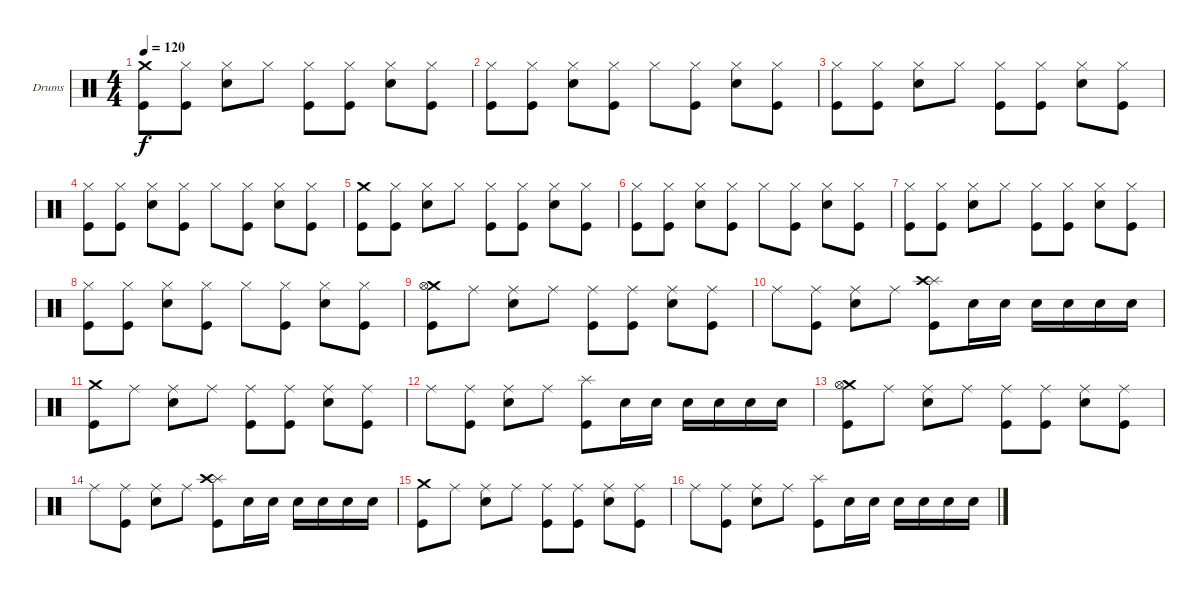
\defaultSystemsLayout 4
\bracketExtendMode groupsimilarinstruments
\firstSystemTrackNameOrientation horizontal
\otherSystemsTrackNameOrientation horizontal
\track ("Drumkit" "Drums") {instrument percussion}
\staff {score}
\articulation defaults
\ts (4 4)
\tempo 120
\clef neutral
\ks c
("Crash medium (hit)" "Kick (hit)").8{dy f} ("Hi-Hat (closed)" "Kick (hit)").8 ("Hi-Hat (closed)" "Snare (hit) 2").8 "Hi-Hat (closed)".8 ("Hi-Hat (closed)" "Kick (hit)").8 ("Hi-Hat (closed)" "Kick (hit)").8 ("Hi-Hat (closed)" "Snare (hit) 2").8 ("Hi-Hat (closed)" "Kick (hit)").8 |
("Hi-Hat (closed)" "Kick (hit)").8 ("Hi-Hat (closed)" "Kick (hit)").8 ("Hi-Hat (closed)" "Snare (hit) 2").8 ("Hi-Hat (closed)" "Kick (hit)").8 "Hi-Hat (closed)".8 ("Hi-Hat (closed)" "Kick (hit)").8 ("Hi-Hat (closed)" "Snare (hit) 2").8 ("Hi-Hat (closed)" "Kick (hit)").8 |
("Hi-Hat (closed)" "Kick (hit)").8 ("Hi-Hat (closed)" "Kick (hit)").8 ("Hi-Hat (closed)" "Snare (hit) 2").8 "Hi-Hat (closed)".8 ("Hi-Hat (closed)" "Kick (hit)").8 ("Hi-Hat (closed)" "Kick (hit)").8 ("Hi-Hat (closed)" "Snare (hit) 2").8 ("Hi-Hat (closed)" "Kick (hit)").8 |
("Hi-Hat (closed)" "Kick (hit)").8 ("Hi-Hat (closed)" "Kick (hit)").8 ("Hi-Hat (closed)" "Snare (hit) 2").8 ("Hi-Hat (closed)" "Kick (hit)").8 "Hi-Hat (closed)".8 ("Hi-Hat (closed)" "Kick (hit)").8 ("Hi-Hat (closed)" "Snare (hit) 2").8 ("Hi-Hat (closed)" "Kick (hit)").8 |
("Crash medium (hit)" "Kick (hit)").8 ("Hi-Hat (closed)" "Kick (hit)").8 ("Hi-Hat (closed)" "Snare (hit) 2").8 "Hi-Hat (closed)".8 ("Hi-Hat (closed)" "Kick (hit)").8 ("Hi-Hat (closed)" "Kick (hit)").8 ("Hi-Hat (closed)" "Snare (hit) 2").8 ("Hi-Hat (closed)" "Kick (hit)").8 |
("Hi-Hat (closed)" "Kick (hit)").8 ("Hi-Hat (closed)" "Kick (hit)").8 ("Hi-Hat (closed)" "Snare (hit) 2").8 ("Hi-Hat (closed)" "Kick (hit)").8 "Hi-Hat (closed)".8 ("Hi-Hat (closed)" "Kick (hit)").8 ("Hi-Hat (closed)" "Snare (hit) 2").8 ("Hi-Hat (closed)" "Kick (hit)").8 |
("Hi-Hat (closed)" "Kick (hit)").8 ("Hi-Hat (closed)" "Kick (hit)").8 ("Hi-Hat (closed)" "Snare (hit) 2").8 "Hi-Hat (closed)".8 ("Hi-Hat (closed)" "Kick (hit)").8 ("Hi-Hat (closed)" "Kick (hit)").8 ("Hi-Hat (closed)" "Snare (hit) 2").8 ("Hi-Hat (closed)" "Kick (hit)").8 |
("Hi-Hat (closed)" "Kick (hit)").8 ("Hi-Hat (closed)" "Kick (hit)").8 ("Hi-Hat (closed)" "Snare (hit) 2").8 ("Hi-Hat (closed)" "Kick (hit)").8 "Hi-Hat (closed)".8 ("Hi-Hat (closed)" "Kick (hit)").8 ("Hi-Hat (closed)" "Snare (hit) 2").8 ("Hi-Hat (closed)" "Kick (hit)").8 |
("Crash medium (hit)" "Kick (hit)" "Hi-Hat (open)").8 "Ride (middle)".8 ("Ride (middle)" "Snare (hit) 2").8 "Ride (middle)".8 ("Ride (middle)" "Kick (hit)").8 ("Ride (middle)" "Kick (hit)").8 ("Ride (middle)" "Snare (hit) 2").8 ("Ride (middle)" "Kick (hit)").8 |
"Ride (middle)".8 ("Ride (middle)" "Kick (hit)").8 ("Ride (middle)" "Snare (hit) 2").8 "Ride (middle)".8 ("Splash (hit)" "Kick (hit)" "Crash high (hit)").8 "Snare (hit) 2".16 "Snare (hit) 2".16 "Snare (hit) 2".16 "Snare (hit) 2".16 "Snare (hit) 2".16 "Snare (hit) 2".16 |
("Crash medium (hit)" "Kick (hit)").8 "Ride (middle)".8 ("Ride (middle)" "Snare (hit) 2").8 "Ride (middle)".8 ("Ride (middle)" "Kick (hit)").8 ("Ride (middle)" "Kick (hit)").8 ("Ride (middle)" "Snare (hit) 2").8 ("Ride (middle)" "Kick (hit)").8 |
"Ride (middle)".8 ("Ride (middle)" "Kick (hit)").8 ("Ride (middle)" "Snare (hit) 2").8 "Ride (middle)".8 ("Splash (hit)" "Kick (hit)").8 "Snare (hit) 2".16 "Snare (hit) 2".16 "Snare (hit) 2".16 "Snare (hit) 2".16 "Snare (hit) 2".16 "Snare (hit) 2".16 |
("Crash medium (hit)" "Kick (hit)" "Hi-Hat (open)").8 "Ride (middle)".8 ("Ride (middle)" "Snare (hit) 2").8 "Ride (middle)".8 ("Ride (middle)" "Kick (hit)").8 ("Ride (middle)" "Kick (hit)").8 ("Ride (middle)" "Snare (hit) 2").8 ("Ride (middle)" "Kick (hit)").8 |
"Ride (middle)".8 ("Ride (middle)" "Kick (hit)").8 ("Ride (middle)" "Snare (hit) 2").8 "Ride (middle)".8 ("Splash (hit)" "Kick (hit)" "Crash high (hit)").8 "Snare (hit) 2".16 "Snare (hit) 2".16 "Snare (hit) 2".16 "Snare (hit) 2".16 "Snare (hit) 2".16 "Snare (hit) 2".16 |
("Crash medium (hit)" "Kick (hit)").8 "Ride (middle)".8 ("Ride (middle)" "Snare (hit) 2").8 "Ride (middle)".8 ("Ride (middle)" "Kick (hit)").8 ("Ride (middle)" "Kick (hit)").8 ("Ride (middle)" "Snare (hit) 2").8 ("Ride (middle)" "Kick (hit)").8 |
"Ride (middle)".8 ("Ride (middle)" "Kick (hit)").8 ("Ride (middle)" "Snare (hit) 2").8 "Ride (middle)".8 ("Splash (hit)" "Kick (hit)").8 "Snare (hit) 2".16 "Snare (hit) 2".16 "Snare (hit) 2".16 "Snare (hit) 2".16 "Snare (hit) 2".16 "Snare (hit) 2".16
